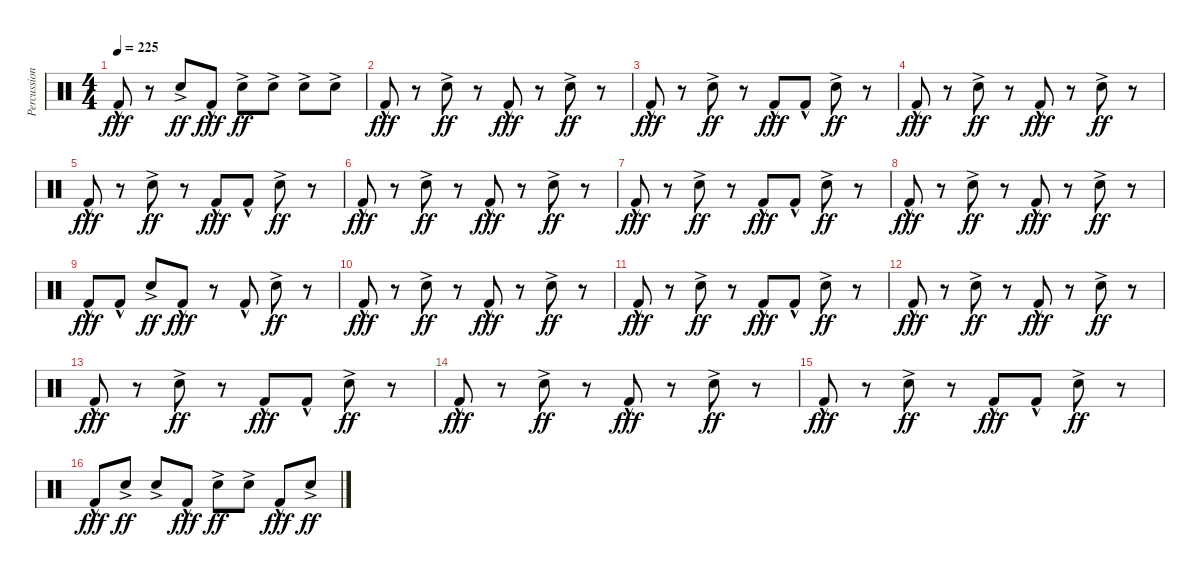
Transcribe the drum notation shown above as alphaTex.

\track ("Percussion" "Percussion") {instrument percussion}
\staff {score}
\articulation defaults
\ts (4 4)
\tempo 225
\clef neutral
\ks c "Kick (hit) 2"{hac}.8{dy fff}
r.8 "Snare (hit) 2"{ac}.8{dy ff} "Kick (hit) 2"{hac}.8{dy fff} "Snare (hit) 2"{ac}.8{dy ff} "Snare (hit) 2"{ac}.8 "Snare (hit) 2"{ac}.8 "Snare (hit) 2"{ac}.8 |
"Kick (hit) 2"{hac}.8{dy fff} r.8 "Snare (hit) 2"{ac}.8{dy ff} r.8 "Kick (hit) 2"{hac}.8{dy fff} r.8 "Snare (hit) 2"{ac}.8{dy ff} r.8 |
"Kick (hit) 2"{hac}.8{dy fff} r.8 "Snare (hit) 2"{ac}.8{dy ff} r.8 "Kick (hit) 2"{hac}.8{dy fff} "Kick (hit) 2"{hac}.8 "Snare (hit) 2"{ac}.8{dy ff} r.8 |
"Kick (hit) 2"{hac}.8{dy fff} r.8 "Snare (hit) 2"{ac}.8{dy ff} r.8 "Kick (hit) 2"{hac}.8{dy fff} r.8 "Snare (hit) 2"{ac}.8{dy ff} r.8 |
"Kick (hit) 2"{hac}.8{dy fff} r.8 "Snare (hit) 2"{ac}.8{dy ff} r.8 "Kick (hit) 2"{hac}.8{dy fff} "Kick (hit) 2"{hac}.8 "Snare (hit) 2"{ac}.8{dy ff} r.8 |
"Kick (hit) 2"{hac}.8{dy fff} r.8 "Snare (hit) 2"{ac}.8{dy ff} r.8 "Kick (hit) 2"{hac}.8{dy fff} r.8 "Snare (hit) 2"{ac}.8{dy ff} r.8 |
"Kick (hit) 2"{hac}.8{dy fff} r.8 "Snare (hit) 2"{ac}.8{dy ff} r.8 "Kick (hit) 2"{hac}.8{dy fff} "Kick (hit) 2"{hac}.8 "Snare (hit) 2"{ac}.8{dy ff} r.8 |
"Kick (hit) 2"{hac}.8{dy fff} r.8 "Snare (hit) 2"{ac}.8{dy ff} r.8 "Kick (hit) 2"{hac}.8{dy fff} r.8 "Snare (hit) 2"{ac}.8{dy ff} r.8 |
"Kick (hit) 2"{hac}.8{dy fff} "Kick (hit) 2"{hac}.8 "Snare (hit) 2"{ac}.8{dy ff} "Kick (hit) 2"{hac}.8{dy fff} r.8 "Kick (hit) 2"{hac}.8 "Snare (hit) 2"{ac}.8{dy ff} r.8 |
"Kick (hit) 2"{hac}.8{dy fff} r.8 "Snare (hit) 2"{ac}.8{dy ff} r.8 "Kick (hit) 2"{hac}.8{dy fff} r.8 "Snare (hit) 2"{ac}.8{dy ff} r.8 |
"Kick (hit) 2"{hac}.8{dy fff} r.8 "Snare (hit) 2"{ac}.8{dy ff} r.8 "Kick (hit) 2"{hac}.8{dy fff} "Kick (hit) 2"{hac}.8 "Snare (hit) 2"{ac}.8{dy ff} r.8 |
"Kick (hit) 2"{hac}.8{dy fff} r.8 "Snare (hit) 2"{ac}.8{dy ff} r.8 "Kick (hit) 2"{hac}.8{dy fff} r.8 "Snare (hit) 2"{ac}.8{dy ff} r.8 |
"Kick (hit) 2"{hac}.8{dy fff} r.8 "Snare (hit) 2"{ac}.8{dy ff} r.8 "Kick (hit) 2"{hac}.8{dy fff} "Kick (hit) 2"{hac}.8 "Snare (hit) 2"{ac}.8{dy ff} r.8 |
"Kick (hit) 2"{hac}.8{dy fff} r.8 "Snare (hit) 2"{ac}.8{dy ff} r.8 "Kick (hit) 2"{hac}.8{dy fff} r.8 "Snare (hit) 2"{ac}.8{dy ff} r.8 |
"Kick (hit) 2"{hac}.8{dy fff} r.8 "Snare (hit) 2"{ac}.8{dy ff} r.8 "Kick (hit) 2"{hac}.8{dy fff} "Kick (hit) 2"{hac}.8 "Snare (hit) 2"{ac}.8{dy ff} r.8 |
"Kick (hit) 2"{hac}.8{dy fff} "Snare (hit) 2"{ac}.8{dy ff} "Snare (hit) 2"{ac}.8 "Kick (hit) 2"{hac}.8{dy fff} "Snare (hit) 2"{ac}.8{dy ff} "Snare (hit) 2"{ac}.8 "Kick (hit) 2"{hac}.8{dy fff} "Snare (hit) 2"{ac}.8{dy ff}
